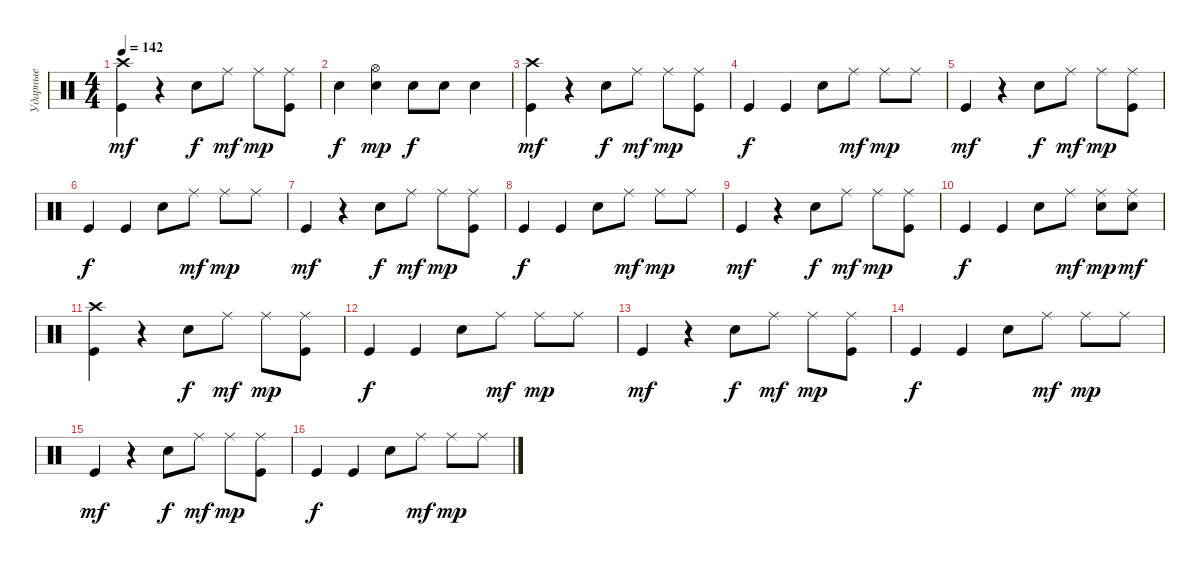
\track ("Ударные" "Ударные") {instrument percussion}
\staff {score}
\articulation defaults
\ts (4 4)
\tempo 142
\clef neutral
\ks c
("Crash high (hit)" "Kick (hit)").4{dy mf} r.4 "Electric Snare (hit)".8{dy f} "Ride (middle)".8{dy mf} "Ride (middle)".8{dy mp} ("Kick (hit)" "Ride (middle)").8 |
"Electric Snare (hit)".4{dy f} ("Hi-Hat (open)" "Electric Snare (hit)").4{dy mp} "Snare (hit) 2".8{dy f} "Snare (hit) 2".8 "Snare (hit) 2".4 |
("Kick (hit)" "Crash high (hit)").4{dy mf} r.4 "Snare (hit) 2".8{dy f} "Ride (middle)".8{dy mf} "Ride (middle)".8{dy mp} ("Kick (hit)" "Ride (middle)").8 |
"Kick (hit)".4{dy f} "Kick (hit)".4 "Snare (hit) 2".8 "Ride (middle)".8{dy mf} "Ride (middle)".8{dy mp} "Ride (middle)".8 |
"Kick (hit)".4{dy mf} r.4 "Snare (hit) 2".8{dy f} "Ride (middle)".8{dy mf} "Ride (middle)".8{dy mp} ("Kick (hit)" "Ride (middle)").8 |
"Kick (hit)".4{dy f} "Kick (hit)".4 "Snare (hit) 2".8 "Ride (middle)".8{dy mf} "Ride (middle)".8{dy mp} "Ride (middle)".8 |
"Kick (hit)".4{dy mf} r.4 "Snare (hit) 2".8{dy f} "Ride (middle)".8{dy mf} "Ride (middle)".8{dy mp} ("Kick (hit)" "Ride (middle)").8 |
"Kick (hit)".4{dy f} "Kick (hit)".4 "Snare (hit) 2".8 "Ride (middle)".8{dy mf} "Ride (middle)".8{dy mp} "Ride (middle)".8 |
"Kick (hit)".4{dy mf} r.4 "Snare (hit) 2".8{dy f} "Ride (middle)".8{dy mf} "Ride (middle)".8{dy mp} ("Kick (hit)" "Ride (middle)").8 |
"Kick (hit)".4{dy f} "Kick (hit)".4 "Electric Snare (hit)".8 "Ride (middle)".8{dy mf} ("Ride (middle)" "Electric Snare (hit)").8{dy mp} ("Ride (middle)" "Electric Snare (hit)").8{dy mf} |
("Kick (hit)" "Crash high (hit)").4 r.4 "Snare (hit) 2".8{dy f} "Ride (middle)".8{dy mf} "Ride (middle)".8{dy mp} ("Kick (hit)" "Ride (middle)").8 |
"Kick (hit)".4{dy f} "Kick (hit)".4 "Snare (hit) 2".8 "Ride (middle)".8{dy mf} "Ride (middle)".8{dy mp} "Ride (middle)".8 |
"Kick (hit)".4{dy mf} r.4 "Snare (hit) 2".8{dy f} "Ride (middle)".8{dy mf} "Ride (middle)".8{dy mp} ("Kick (hit)" "Ride (middle)").8 |
"Kick (hit)".4{dy f} "Kick (hit)".4 "Snare (hit) 2".8 "Ride (middle)".8{dy mf} "Ride (middle)".8{dy mp} "Ride (middle)".8 |
"Kick (hit)".4{dy mf} r.4 "Snare (hit) 2".8{dy f} "Ride (middle)".8{dy mf} "Ride (middle)".8{dy mp} ("Kick (hit)" "Ride (middle)").8 |
"Kick (hit)".4{dy f} "Kick (hit)".4 "Snare (hit) 2".8 "Ride (middle)".8{dy mf} "Ride (middle)".8{dy mp} "Ride (middle)".8
